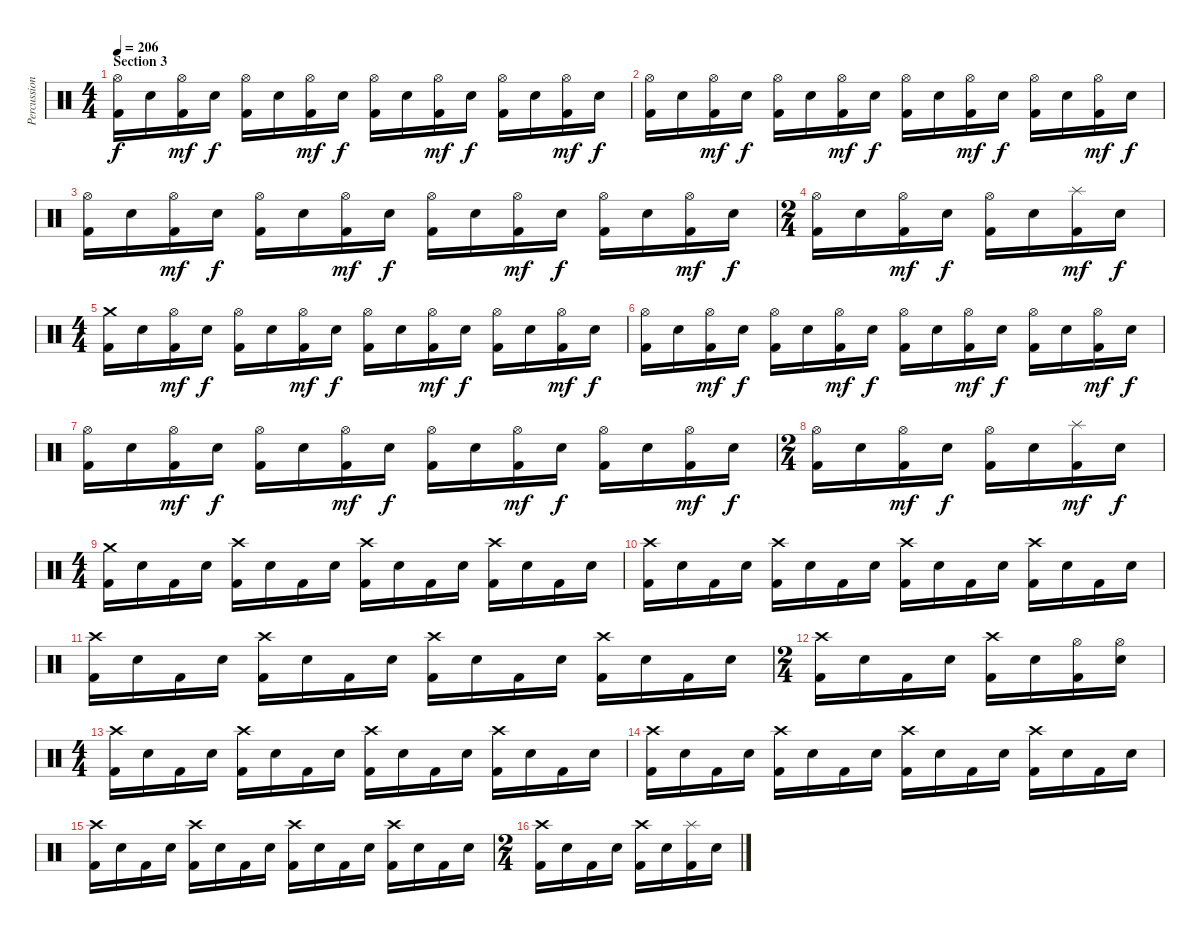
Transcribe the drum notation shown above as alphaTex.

\track ("Percussion" "Percussion") {instrument percussion}
\staff {score}
\articulation defaults
\ts (4 4)
\section ("" "Section 3")
\tempo 206
\clef neutral
\ks c
("Hi-Hat (open)" "Kick (hit) 2").16{dy f} "Electric Snare (hit)".16 ("Hi-Hat (open)" "Kick (hit) 2").16{dy mf} "Electric Snare (hit)".16{dy f} ("Hi-Hat (open)" "Kick (hit) 2").16 "Electric Snare (hit)".16 ("Hi-Hat (open)" "Kick (hit) 2").16{dy mf} "Electric Snare (hit)".16{dy f} ("Hi-Hat (open)" "Kick (hit) 2").16 "Electric Snare (hit)".16 ("Hi-Hat (open)" "Kick (hit) 2").16{dy mf} "Electric Snare (hit)".16{dy f} ("Hi-Hat (open)" "Kick (hit) 2").16 "Electric Snare (hit)".16 ("Hi-Hat (open)" "Kick (hit) 2").16{dy mf} "Electric Snare (hit)".16{dy f} |
("Hi-Hat (open)" "Kick (hit) 2").16 "Electric Snare (hit)".16 ("Hi-Hat (open)" "Kick (hit) 2").16{dy mf} "Electric Snare (hit)".16{dy f} ("Hi-Hat (open)" "Kick (hit) 2").16 "Electric Snare (hit)".16 ("Hi-Hat (open)" "Kick (hit) 2").16{dy mf} "Electric Snare (hit)".16{dy f} ("Hi-Hat (open)" "Kick (hit) 2").16 "Electric Snare (hit)".16 ("Hi-Hat (open)" "Kick (hit) 2").16{dy mf} "Electric Snare (hit)".16{dy f} ("Hi-Hat (open)" "Kick (hit) 2").16 "Electric Snare (hit)".16 ("Hi-Hat (open)" "Kick (hit) 2").16{dy mf} "Electric Snare (hit)".16{dy f} |
("Hi-Hat (open)" "Kick (hit) 2").16 "Electric Snare (hit)".16 ("Hi-Hat (open)" "Kick (hit) 2").16{dy mf} "Electric Snare (hit)".16{dy f} ("Hi-Hat (open)" "Kick (hit) 2").16 "Electric Snare (hit)".16 ("Hi-Hat (open)" "Kick (hit) 2").16{dy mf} "Electric Snare (hit)".16{dy f} ("Hi-Hat (open)" "Kick (hit) 2").16 "Electric Snare (hit)".16 ("Hi-Hat (open)" "Kick (hit) 2").16{dy mf} "Electric Snare (hit)".16{dy f} ("Hi-Hat (open)" "Kick (hit) 2").16 "Electric Snare (hit)".16 ("Hi-Hat (open)" "Kick (hit) 2").16{dy mf} "Electric Snare (hit)".16{dy f} |
\ts (2 4)
("Hi-Hat (open)" "Kick (hit) 2").16 "Electric Snare (hit)".16 ("Hi-Hat (open)" "Kick (hit) 2").16{dy mf} "Electric Snare (hit)".16{dy f} ("Hi-Hat (open)" "Kick (hit) 2").16 "Electric Snare (hit)".16 ("Splash (hit)" "Kick (hit) 2").16{dy mf} "Electric Snare (hit)".16{dy f} |
\ts (4 4)
("Crash medium (hit)" "Kick (hit) 2").16 "Electric Snare (hit)".16 ("Hi-Hat (open)" "Kick (hit) 2").16{dy mf} "Electric Snare (hit)".16{dy f} ("Hi-Hat (open)" "Kick (hit) 2").16 "Electric Snare (hit)".16 ("Hi-Hat (open)" "Kick (hit) 2").16{dy mf} "Electric Snare (hit)".16{dy f} ("Hi-Hat (open)" "Kick (hit) 2").16 "Electric Snare (hit)".16 ("Hi-Hat (open)" "Kick (hit) 2").16{dy mf} "Electric Snare (hit)".16{dy f} ("Hi-Hat (open)" "Kick (hit) 2").16 "Electric Snare (hit)".16 ("Hi-Hat (open)" "Kick (hit) 2").16{dy mf} "Electric Snare (hit)".16{dy f} |
("Hi-Hat (open)" "Kick (hit) 2").16 "Electric Snare (hit)".16 ("Hi-Hat (open)" "Kick (hit) 2").16{dy mf} "Electric Snare (hit)".16{dy f} ("Hi-Hat (open)" "Kick (hit) 2").16 "Electric Snare (hit)".16 ("Hi-Hat (open)" "Kick (hit) 2").16{dy mf} "Electric Snare (hit)".16{dy f} ("Hi-Hat (open)" "Kick (hit) 2").16 "Electric Snare (hit)".16 ("Hi-Hat (open)" "Kick (hit) 2").16{dy mf} "Electric Snare (hit)".16{dy f} ("Hi-Hat (open)" "Kick (hit) 2").16 "Electric Snare (hit)".16 ("Hi-Hat (open)" "Kick (hit) 2").16{dy mf} "Electric Snare (hit)".16{dy f} |
("Hi-Hat (open)" "Kick (hit) 2").16 "Electric Snare (hit)".16 ("Hi-Hat (open)" "Kick (hit) 2").16{dy mf} "Electric Snare (hit)".16{dy f} ("Hi-Hat (open)" "Kick (hit) 2").16 "Electric Snare (hit)".16 ("Hi-Hat (open)" "Kick (hit) 2").16{dy mf} "Electric Snare (hit)".16{dy f} ("Hi-Hat (open)" "Kick (hit) 2").16 "Electric Snare (hit)".16 ("Hi-Hat (open)" "Kick (hit) 2").16{dy mf} "Electric Snare (hit)".16{dy f} ("Hi-Hat (open)" "Kick (hit) 2").16 "Electric Snare (hit)".16 ("Hi-Hat (open)" "Kick (hit) 2").16{dy mf} "Electric Snare (hit)".16{dy f} |
\ts (2 4)
("Hi-Hat (open)" "Kick (hit) 2").16 "Electric Snare (hit)".16 ("Hi-Hat (open)" "Kick (hit) 2").16{dy mf} "Electric Snare (hit)".16{dy f} ("Hi-Hat (open)" "Kick (hit) 2").16 "Electric Snare (hit)".16 ("Splash (hit)" "Kick (hit) 2").16{dy mf} "Electric Snare (hit)".16{dy f} |
\ts (4 4)
("Crash medium (hit)" "Kick (hit) 2").16 "Electric Snare (hit)".16 "Kick (hit) 2".16 "Electric Snare (hit)".16 ("Crash high (hit)" "Kick (hit) 2").16 "Electric Snare (hit)".16 "Kick (hit) 2".16 "Electric Snare (hit)".16 ("Crash high (hit)" "Kick (hit) 2").16 "Electric Snare (hit)".16 "Kick (hit) 2".16 "Electric Snare (hit)".16 ("Crash high (hit)" "Kick (hit) 2").16 "Electric Snare (hit)".16 "Kick (hit) 2".16 "Electric Snare (hit)".16 |
("Crash high (hit)" "Kick (hit) 2").16 "Electric Snare (hit)".16 "Kick (hit) 2".16 "Electric Snare (hit)".16 ("Crash high (hit)" "Kick (hit) 2").16 "Electric Snare (hit)".16 "Kick (hit) 2".16 "Electric Snare (hit)".16 ("Crash high (hit)" "Kick (hit) 2").16 "Electric Snare (hit)".16 "Kick (hit) 2".16 "Electric Snare (hit)".16 ("Crash high (hit)" "Kick (hit) 2").16 "Electric Snare (hit)".16 "Kick (hit) 2".16 "Electric Snare (hit)".16 |
("Crash high (hit)" "Kick (hit) 2").16 "Electric Snare (hit)".16 "Kick (hit) 2".16 "Electric Snare (hit)".16 ("Crash high (hit)" "Kick (hit) 2").16 "Electric Snare (hit)".16 "Kick (hit) 2".16 "Electric Snare (hit)".16 ("Crash high (hit)" "Kick (hit) 2").16 "Electric Snare (hit)".16 "Kick (hit) 2".16 "Electric Snare (hit)".16 ("Crash high (hit)" "Kick (hit) 2").16 "Electric Snare (hit)".16 "Kick (hit) 2".16 "Electric Snare (hit)".16 |
\ts (2 4)
("Crash high (hit)" "Kick (hit) 2").16 "Electric Snare (hit)".16 "Kick (hit) 2".16 "Electric Snare (hit)".16 ("Crash high (hit)" "Kick (hit) 2").16 "Electric Snare (hit)".16 ("Hi-Hat (open)" "Kick (hit) 2").16 ("Hi-Hat (open)" "Electric Snare (hit)").16 |
\ts (4 4)
("Crash high (hit)" "Kick (hit) 2").16 "Electric Snare (hit)".16 "Kick (hit) 2".16 "Electric Snare (hit)".16 ("Crash high (hit)" "Kick (hit) 2").16 "Electric Snare (hit)".16 "Kick (hit) 2".16 "Electric Snare (hit)".16 ("Crash high (hit)" "Kick (hit) 2").16 "Electric Snare (hit)".16 "Kick (hit) 2".16 "Electric Snare (hit)".16 ("Crash high (hit)" "Kick (hit) 2").16 "Electric Snare (hit)".16 "Kick (hit) 2".16 "Electric Snare (hit)".16 |
("Crash high (hit)" "Kick (hit) 2").16 "Electric Snare (hit)".16 "Kick (hit) 2".16 "Electric Snare (hit)".16 ("Crash high (hit)" "Kick (hit) 2").16 "Electric Snare (hit)".16 "Kick (hit) 2".16 "Electric Snare (hit)".16 ("Crash high (hit)" "Kick (hit) 2").16 "Electric Snare (hit)".16 "Kick (hit) 2".16 "Electric Snare (hit)".16 ("Crash high (hit)" "Kick (hit) 2").16 "Electric Snare (hit)".16 "Kick (hit) 2".16 "Electric Snare (hit)".16 |
("Crash high (hit)" "Kick (hit) 2").16 "Electric Snare (hit)".16 "Kick (hit) 2".16 "Electric Snare (hit)".16 ("Crash high (hit)" "Kick (hit) 2").16 "Electric Snare (hit)".16 "Kick (hit) 2".16 "Electric Snare (hit)".16 ("Crash high (hit)" "Kick (hit) 2").16 "Electric Snare (hit)".16 "Kick (hit) 2".16 "Electric Snare (hit)".16 ("Crash high (hit)" "Kick (hit) 2").16 "Electric Snare (hit)".16 "Kick (hit) 2".16 "Electric Snare (hit)".16 |
\ts (2 4)
("Crash high (hit)" "Kick (hit) 2").16 "Electric Snare (hit)".16 "Kick (hit) 2".16 "Electric Snare (hit)".16 ("Crash high (hit)" "Kick (hit) 2").16 "Electric Snare (hit)".16 ("Splash (hit)" "Kick (hit) 2").16 "Electric Snare (hit)".16
